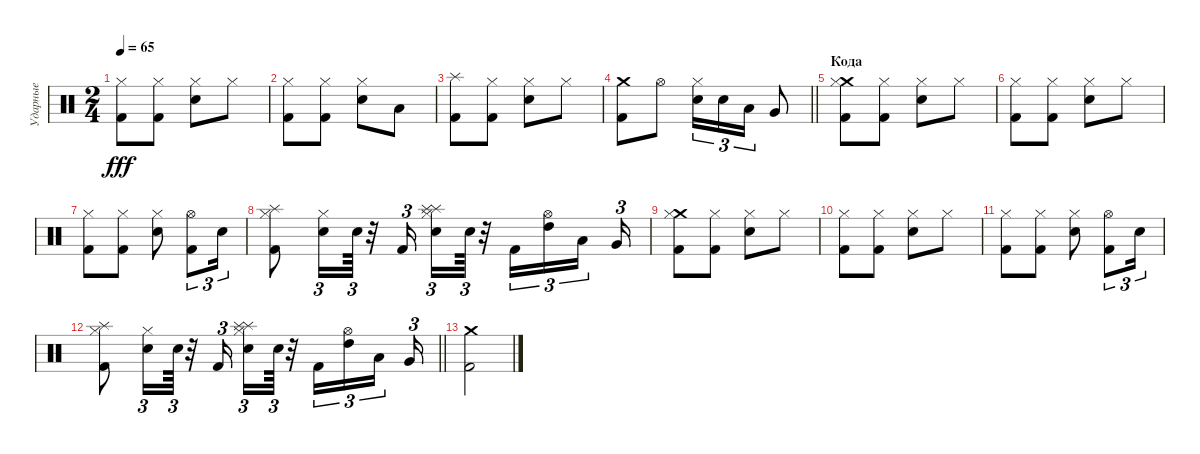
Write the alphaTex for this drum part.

\track ("Ударные" "Ударные") {instrument percussion}
\staff
\articulation defaults
\ts (2 4)
\tempo 65
\clef neutral
\ks c
("Kick (hit) 2" "Hi-Hat (closed)").8{dy fff} ("Kick (hit) 2" "Hi-Hat (closed)").8 ("Snare (hit) 2" "Hi-Hat (closed)").8 "Hi-Hat (closed)".8 |
("Kick (hit) 2" "Hi-Hat (closed)").8 ("Kick (hit) 2" "Hi-Hat (closed)").8 ("Snare (hit) 2" "Hi-Hat (closed)").8 "Low Tom (hit)".8 |
("Kick (hit) 2" "Splash (hit)").8 ("Kick (hit) 2" "Hi-Hat (closed)").8 ("Snare (hit) 2" "Hi-Hat (closed)").8 "Hi-Hat (closed)".8 |
\barLineRight lightlight
("Kick (hit) 2" "Crash medium (hit)").8 "Hi-Hat (open)".8 ("Snare (hit) 2" "Hi-Hat (closed)").16{tu (3 2)} "Snare (hit) 2".16{tu (3 2)} "Low Tom (hit)".16{tu (3 2)} "Very Low Tom (hit)".8 |
\section ("" "Кода")
("Kick (hit) 2" "Crash medium (hit)" "Hi-Hat (closed)").8 ("Kick (hit) 2" "Hi-Hat (closed)").8 ("Snare (hit) 2" "Hi-Hat (closed)").8 "Hi-Hat (closed)".8 |
("Kick (hit) 2" "Hi-Hat (closed)").8 ("Kick (hit) 2" "Hi-Hat (closed)").8 ("Snare (hit) 2" "Hi-Hat (closed)").8 "Hi-Hat (closed)".8 |
("Kick (hit) 2" "Hi-Hat (closed)").8 ("Kick (hit) 2" "Hi-Hat (closed)").8 ("Snare (hit) 2" "Hi-Hat (closed)").8 ("Kick (hit) 2" "Hi-Hat (open)").8{tu (3 2)} "Electric Snare (hit)".16{tu (3 2)} |
("Kick (hit) 2" "Splash (hit)" "Hi-Hat (closed)").8 ("Snare (hit) 2" "Hi-Hat (closed)").16{tu (3 2)} "Snare (hit) 2".64{tu (3 2)} r.32 "Kick (hit) 2".16{tu (3 2)} ("Snare (hit) 2" "Splash (hit)" "Splash (hit)" "Hi-Hat (closed)").16{tu (3 2)} "Snare (hit) 2".64{tu (3 2)} r.32 "Kick (hit) 2".16{tu (3 2)} ("High Tom (hit)" "Hi-Hat (open)").16{tu (3 2)} "Low Tom (hit)".16{tu (3 2) beam splitsecondary} "Very Low Tom (hit)".16{tu (3 2)} |
("Kick (hit) 2" "Crash medium (hit)" "Hi-Hat (closed)").8 ("Kick (hit) 2" "Hi-Hat (closed)").8 ("Snare (hit) 2" "Hi-Hat (closed)").8 "Hi-Hat (closed)".8 |
("Kick (hit) 2" "Hi-Hat (closed)").8 ("Kick (hit) 2" "Hi-Hat (closed)").8 ("Snare (hit) 2" "Hi-Hat (closed)").8 "Hi-Hat (closed)".8 |
("Kick (hit) 2" "Hi-Hat (closed)").8 ("Kick (hit) 2" "Hi-Hat (closed)").8 ("Snare (hit) 2" "Hi-Hat (closed)").8 ("Kick (hit) 2" "Hi-Hat (open)").8{tu (3 2)} "Electric Snare (hit)".16{tu (3 2)} |
\barLineRight lightlight
("Kick (hit) 2" "Splash (hit)" "Hi-Hat (closed)").8 ("Snare (hit) 2" "Hi-Hat (closed)").16{tu (3 2)} "Snare (hit) 2".64{tu (3 2)} r.32 "Kick (hit) 2".16{tu (3 2)} ("Snare (hit) 2" "Splash (hit)" "Splash (hit)" "Hi-Hat (closed)").16{tu (3 2)} "Snare (hit) 2".64{tu (3 2)} r.32 "Kick (hit) 2".16{tu (3 2)} ("High Tom (hit)" "Hi-Hat (open)").16{tu (3 2)} "Low Tom (hit)".16{tu (3 2) beam splitsecondary} "Very Low Tom (hit)".16{tu (3 2)} |
("Kick (hit) 2" "Crash medium (hit)").2
